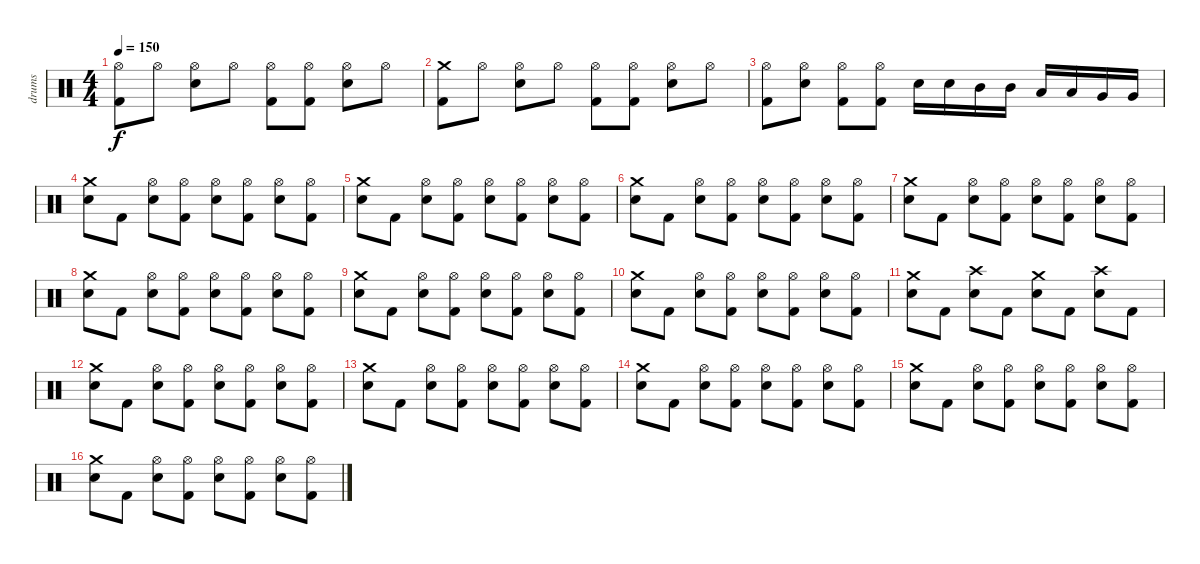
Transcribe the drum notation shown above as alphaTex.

\track ("drums" "drums") {instrument percussion}
\staff {score}
\articulation defaults
\ts (4 4)
\tempo 150
\clef neutral
\ks c
("Hi-Hat (open)" "Kick (hit) 2").8{dy f} "Hi-Hat (open)".8 ("Hi-Hat (open)" "Electric Snare (hit)").8 "Hi-Hat (open)".8 ("Hi-Hat (open)" "Kick (hit) 2").8 ("Hi-Hat (open)" "Kick (hit) 2").8 ("Hi-Hat (open)" "Electric Snare (hit)").8 "Hi-Hat (open)".8 |
("Crash medium (hit)" "Kick (hit) 2").8 "Hi-Hat (open)".8 ("Hi-Hat (open)" "Electric Snare (hit)").8 "Hi-Hat (open)".8 ("Hi-Hat (open)" "Kick (hit) 2").8 ("Hi-Hat (open)" "Kick (hit) 2").8 ("Hi-Hat (open)" "Electric Snare (hit)").8 "Hi-Hat (open)".8 |
("Hi-Hat (open)" "Kick (hit) 2").8 ("Hi-Hat (open)" "Electric Snare (hit)").8 ("Hi-Hat (open)" "Kick (hit) 2").8 ("Hi-Hat (open)" "Kick (hit) 2").8 "Electric Snare (hit)".16 "Electric Snare (hit)".16 "Mid Tom (hit)".16 "Mid Tom (hit)".16 "Low Tom (hit)".16 "Low Tom (hit)".16 "Very Low Tom (hit)".16 "Very Low Tom (hit)".16 |
("Crash medium (hit)" "Electric Snare (hit)").8 "Kick (hit) 2".8 ("Hi-Hat (open)" "Electric Snare (hit)").8 ("Hi-Hat (open)" "Kick (hit) 2").8 ("Hi-Hat (open)" "Electric Snare (hit)").8 ("Hi-Hat (open)" "Kick (hit) 2").8 ("Hi-Hat (open)" "Electric Snare (hit)").8 ("Hi-Hat (open)" "Kick (hit) 2").8 |
("Crash medium (hit)" "Electric Snare (hit)").8 "Kick (hit) 2".8 ("Hi-Hat (open)" "Electric Snare (hit)").8 ("Hi-Hat (open)" "Kick (hit) 2").8 ("Hi-Hat (open)" "Electric Snare (hit)").8 ("Hi-Hat (open)" "Kick (hit) 2").8 ("Hi-Hat (open)" "Electric Snare (hit)").8 ("Hi-Hat (open)" "Kick (hit) 2").8 |
("Crash medium (hit)" "Electric Snare (hit)").8 "Kick (hit) 2".8 ("Hi-Hat (open)" "Electric Snare (hit)").8 ("Hi-Hat (open)" "Kick (hit) 2").8 ("Hi-Hat (open)" "Electric Snare (hit)").8 ("Hi-Hat (open)" "Kick (hit) 2").8 ("Hi-Hat (open)" "Electric Snare (hit)").8 ("Hi-Hat (open)" "Kick (hit) 2").8 |
("Crash medium (hit)" "Electric Snare (hit)").8 "Kick (hit) 2".8 ("Hi-Hat (open)" "Electric Snare (hit)").8 ("Hi-Hat (open)" "Kick (hit) 2").8 ("Hi-Hat (open)" "Electric Snare (hit)").8 ("Hi-Hat (open)" "Kick (hit) 2").8 ("Hi-Hat (open)" "Electric Snare (hit)").8 ("Hi-Hat (open)" "Kick (hit) 2").8 |
("Crash medium (hit)" "Electric Snare (hit)").8 "Kick (hit) 2".8 ("Hi-Hat (open)" "Electric Snare (hit)").8 ("Hi-Hat (open)" "Kick (hit) 2").8 ("Hi-Hat (open)" "Electric Snare (hit)").8 ("Hi-Hat (open)" "Kick (hit) 2").8 ("Hi-Hat (open)" "Electric Snare (hit)").8 ("Hi-Hat (open)" "Kick (hit) 2").8 |
("Crash medium (hit)" "Electric Snare (hit)").8 "Kick (hit) 2".8 ("Hi-Hat (open)" "Electric Snare (hit)").8 ("Hi-Hat (open)" "Kick (hit) 2").8 ("Hi-Hat (open)" "Electric Snare (hit)").8 ("Hi-Hat (open)" "Kick (hit) 2").8 ("Hi-Hat (open)" "Electric Snare (hit)").8 ("Hi-Hat (open)" "Kick (hit) 2").8 |
("Crash medium (hit)" "Electric Snare (hit)").8 "Kick (hit) 2".8 ("Hi-Hat (open)" "Electric Snare (hit)").8 ("Hi-Hat (open)" "Kick (hit) 2").8 ("Hi-Hat (open)" "Electric Snare (hit)").8 ("Hi-Hat (open)" "Kick (hit) 2").8 ("Hi-Hat (open)" "Electric Snare (hit)").8 ("Hi-Hat (open)" "Kick (hit) 2").8 |
("Crash medium (hit)" "Electric Snare (hit)").8 "Kick (hit) 2".8 ("Crash high (hit)" "Electric Snare (hit)").8 "Kick (hit) 2".8 ("Crash medium (hit)" "Electric Snare (hit)").8 "Kick (hit) 2".8 ("Crash high (hit)" "Electric Snare (hit)").8 "Kick (hit) 2".8 |
("Crash medium (hit)" "Electric Snare (hit)").8 "Kick (hit) 2".8 ("Hi-Hat (open)" "Electric Snare (hit)").8 ("Hi-Hat (open)" "Kick (hit) 2").8 ("Hi-Hat (open)" "Electric Snare (hit)").8 ("Hi-Hat (open)" "Kick (hit) 2").8 ("Hi-Hat (open)" "Electric Snare (hit)").8 ("Hi-Hat (open)" "Kick (hit) 2").8 |
("Crash medium (hit)" "Electric Snare (hit)").8 "Kick (hit) 2".8 ("Hi-Hat (open)" "Electric Snare (hit)").8 ("Hi-Hat (open)" "Kick (hit) 2").8 ("Hi-Hat (open)" "Electric Snare (hit)").8 ("Hi-Hat (open)" "Kick (hit) 2").8 ("Hi-Hat (open)" "Electric Snare (hit)").8 ("Hi-Hat (open)" "Kick (hit) 2").8 |
("Crash medium (hit)" "Electric Snare (hit)").8 "Kick (hit) 2".8 ("Hi-Hat (open)" "Electric Snare (hit)").8 ("Hi-Hat (open)" "Kick (hit) 2").8 ("Hi-Hat (open)" "Electric Snare (hit)").8 ("Hi-Hat (open)" "Kick (hit) 2").8 ("Hi-Hat (open)" "Electric Snare (hit)").8 ("Hi-Hat (open)" "Kick (hit) 2").8 |
("Crash medium (hit)" "Electric Snare (hit)").8 "Kick (hit) 2".8 ("Hi-Hat (open)" "Electric Snare (hit)").8 ("Hi-Hat (open)" "Kick (hit) 2").8 ("Hi-Hat (open)" "Electric Snare (hit)").8 ("Hi-Hat (open)" "Kick (hit) 2").8 ("Hi-Hat (open)" "Electric Snare (hit)").8 ("Hi-Hat (open)" "Kick (hit) 2").8 |
("Crash medium (hit)" "Electric Snare (hit)").8 "Kick (hit) 2".8 ("Hi-Hat (open)" "Electric Snare (hit)").8 ("Hi-Hat (open)" "Kick (hit) 2").8 ("Hi-Hat (open)" "Electric Snare (hit)").8 ("Hi-Hat (open)" "Kick (hit) 2").8 ("Hi-Hat (open)" "Electric Snare (hit)").8 ("Hi-Hat (open)" "Kick (hit) 2").8
